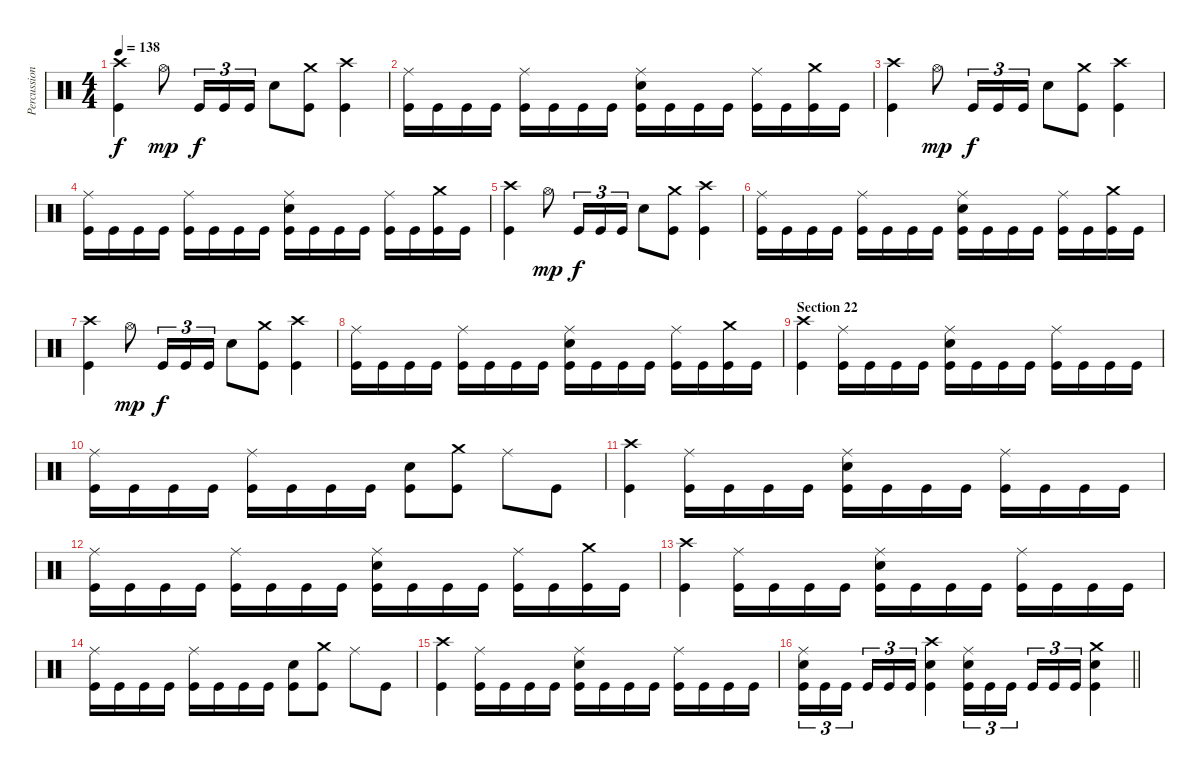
\track ("Percussion" "Percussion") {instrument percussion}
\staff {score}
\articulation defaults
\ts (4 4)
\tempo 138
\clef neutral
\ks c
("Crash high (hit)" "Kick (hit)").4{dy f} "Hi-Hat (open)".8{dy mp} "Kick (hit)".16{tu (3 2) dy f} "Kick (hit)".16{tu (3 2)} "Kick (hit)".16{tu (3 2)} "Electric Snare (hit)".8 ("Crash medium (hit)" "Kick (hit)").8 ("Crash high (hit)" "Kick (hit)").4 |
("Ride (middle)" "Kick (hit)").16 "Kick (hit)".16 "Kick (hit)".16 "Kick (hit)".16 ("Ride (middle)" "Kick (hit)").16 "Kick (hit)".16 "Kick (hit)".16 "Kick (hit)".16 ("Ride (middle)" "Electric Snare (hit)" "Kick (hit)").16 "Kick (hit)".16 "Kick (hit)".16 "Kick (hit)".16 ("Ride (middle)" "Kick (hit)").16 "Kick (hit)".16 ("Crash medium (hit)" "Kick (hit)").16 "Kick (hit)".16 |
("Crash high (hit)" "Kick (hit)").4 "Hi-Hat (open)".8{dy mp} "Kick (hit)".16{tu (3 2) dy f} "Kick (hit)".16{tu (3 2)} "Kick (hit)".16{tu (3 2)} "Electric Snare (hit)".8 ("Crash medium (hit)" "Kick (hit)").8 ("Crash high (hit)" "Kick (hit)").4 |
("Ride (middle)" "Kick (hit)").16 "Kick (hit)".16 "Kick (hit)".16 "Kick (hit)".16 ("Ride (middle)" "Kick (hit)").16 "Kick (hit)".16 "Kick (hit)".16 "Kick (hit)".16 ("Ride (middle)" "Electric Snare (hit)" "Kick (hit)").16 "Kick (hit)".16 "Kick (hit)".16 "Kick (hit)".16 ("Ride (middle)" "Kick (hit)").16 "Kick (hit)".16 ("Crash medium (hit)" "Kick (hit)").16 "Kick (hit)".16 |
("Crash high (hit)" "Kick (hit)").4 "Hi-Hat (open)".8{dy mp} "Kick (hit)".16{tu (3 2) dy f} "Kick (hit)".16{tu (3 2)} "Kick (hit)".16{tu (3 2)} "Electric Snare (hit)".8 ("Crash medium (hit)" "Kick (hit)").8 ("Crash high (hit)" "Kick (hit)").4 |
("Ride (middle)" "Kick (hit)").16 "Kick (hit)".16 "Kick (hit)".16 "Kick (hit)".16 ("Ride (middle)" "Kick (hit)").16 "Kick (hit)".16 "Kick (hit)".16 "Kick (hit)".16 ("Ride (middle)" "Electric Snare (hit)" "Kick (hit)").16 "Kick (hit)".16 "Kick (hit)".16 "Kick (hit)".16 ("Ride (middle)" "Kick (hit)").16 "Kick (hit)".16 ("Crash medium (hit)" "Kick (hit)").16 "Kick (hit)".16 |
("Crash high (hit)" "Kick (hit)").4 "Hi-Hat (open)".8{dy mp} "Kick (hit)".16{tu (3 2) dy f} "Kick (hit)".16{tu (3 2)} "Kick (hit)".16{tu (3 2)} "Electric Snare (hit)".8 ("Crash medium (hit)" "Kick (hit)").8 ("Crash high (hit)" "Kick (hit)").4 |
("Ride (middle)" "Kick (hit)").16 "Kick (hit)".16 "Kick (hit)".16 "Kick (hit)".16 ("Ride (middle)" "Kick (hit)").16 "Kick (hit)".16 "Kick (hit)".16 "Kick (hit)".16 ("Ride (middle)" "Electric Snare (hit)" "Kick (hit)").16 "Kick (hit)".16 "Kick (hit)".16 "Kick (hit)".16 ("Ride (middle)" "Kick (hit)").16 "Kick (hit)".16 ("Crash medium (hit)" "Kick (hit)").16 "Kick (hit)".16 |
\section ("" "Section 22")
("Crash high (hit)" "Kick (hit)").4 ("Ride (middle)" "Kick (hit)").16 "Kick (hit)".16 "Kick (hit)".16 "Kick (hit)".16 ("Ride (middle)" "Electric Snare (hit)" "Kick (hit)").16 "Kick (hit)".16 "Kick (hit)".16 "Kick (hit)".16 ("Ride (middle)" "Kick (hit)").16 "Kick (hit)".16 "Kick (hit)".16 "Kick (hit)".16 |
("Ride (middle)" "Kick (hit)").16 "Kick (hit)".16 "Kick (hit)".16 "Kick (hit)".16 ("Ride (middle)" "Kick (hit)").16 "Kick (hit)".16 "Kick (hit)".16 "Kick (hit)".16 ("Electric Snare (hit)" "Kick (hit)").8 ("Crash medium (hit)" "Kick (hit)").8 "Ride (middle)".8 "Kick (hit)".8 |
("Crash high (hit)" "Kick (hit)").4 ("Ride (middle)" "Kick (hit)").16 "Kick (hit)".16 "Kick (hit)".16 "Kick (hit)".16 ("Ride (middle)" "Electric Snare (hit)" "Kick (hit)").16 "Kick (hit)".16 "Kick (hit)".16 "Kick (hit)".16 ("Ride (middle)" "Kick (hit)").16 "Kick (hit)".16 "Kick (hit)".16 "Kick (hit)".16 |
("Ride (middle)" "Kick (hit)").16 "Kick (hit)".16 "Kick (hit)".16 "Kick (hit)".16 ("Ride (middle)" "Kick (hit)").16 "Kick (hit)".16 "Kick (hit)".16 "Kick (hit)".16 ("Ride (middle)" "Electric Snare (hit)" "Kick (hit)").16 "Kick (hit)".16 "Kick (hit)".16 "Kick (hit)".16 ("Ride (middle)" "Kick (hit)").16 "Kick (hit)".16 ("Crash medium (hit)" "Kick (hit)").16 "Kick (hit)".16 |
("Crash high (hit)" "Kick (hit)").4 ("Ride (middle)" "Kick (hit)").16 "Kick (hit)".16 "Kick (hit)".16 "Kick (hit)".16 ("Ride (middle)" "Electric Snare (hit)" "Kick (hit)").16 "Kick (hit)".16 "Kick (hit)".16 "Kick (hit)".16 ("Ride (middle)" "Kick (hit)").16 "Kick (hit)".16 "Kick (hit)".16 "Kick (hit)".16 |
("Ride (middle)" "Kick (hit)").16 "Kick (hit)".16 "Kick (hit)".16 "Kick (hit)".16 ("Ride (middle)" "Kick (hit)").16 "Kick (hit)".16 "Kick (hit)".16 "Kick (hit)".16 ("Electric Snare (hit)" "Kick (hit)").8 ("Crash medium (hit)" "Kick (hit)").8 "Ride (middle)".8 "Kick (hit)".8 |
("Crash high (hit)" "Kick (hit)").4 ("Ride (middle)" "Kick (hit)").16 "Kick (hit)".16 "Kick (hit)".16 "Kick (hit)".16 ("Ride (middle)" "Electric Snare (hit)" "Kick (hit)").16 "Kick (hit)".16 "Kick (hit)".16 "Kick (hit)".16 ("Ride (middle)" "Kick (hit)").16 "Kick (hit)".16 "Kick (hit)".16 "Kick (hit)".16 |
\barLineRight lightlight
("Ride (middle)" "Electric Snare (hit)" "Kick (hit)").16{tu (3 2)} "Kick (hit)".16{tu (3 2)} "Kick (hit)".16{tu (3 2) beam splitsecondary} "Kick (hit)".16{tu (3 2)} "Kick (hit)".16{tu (3 2)} "Kick (hit)".16{tu (3 2)} ("Crash high (hit)" "Electric Snare (hit)" "Kick (hit)").4 ("Ride (middle)" "Electric Snare (hit)" "Kick (hit)").16{tu (3 2)} "Kick (hit)".16{tu (3 2)} "Kick (hit)".16{tu (3 2) beam splitsecondary} "Kick (hit)".16{tu (3 2)} "Kick (hit)".16{tu (3 2)} "Kick (hit)".16{tu (3 2)} ("Crash medium (hit)" "Electric Snare (hit)" "Kick (hit)").4
